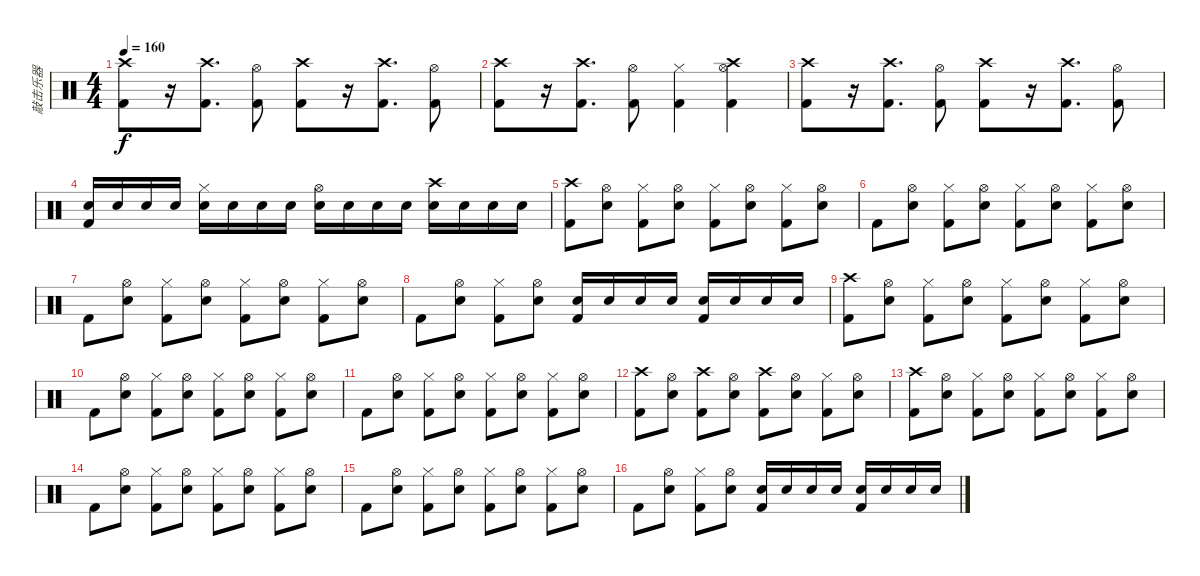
\track ("敲击乐器" "敲击乐器") {instrument percussion}
\staff {score}
\articulation defaults
\ts (4 4)
\tempo 160
\clef neutral
\ks c
("Crash high (hit)" "Kick (hit) 2").8{dy f} r.16 ("Crash high (hit)" "Kick (hit) 2").8{d} ("Hi-Hat (open)" "Kick (hit) 2").8 ("Crash high (hit)" "Kick (hit) 2").8 r.16 ("Crash high (hit)" "Kick (hit) 2").8{d} ("Hi-Hat (open)" "Kick (hit) 2").8 |
("Crash high (hit)" "Kick (hit) 2").8 r.16 ("Crash high (hit)" "Kick (hit) 2").8{d} ("Hi-Hat (open)" "Kick (hit) 2").8 ("Hi-Hat (closed)" "Kick (hit) 2").4 ("Crash high (hit)" "Hi-Hat (open)" "Kick (hit) 2").4 |
("Crash high (hit)" "Kick (hit) 2").8 r.16 ("Crash high (hit)" "Kick (hit) 2").8{d} ("Hi-Hat (open)" "Kick (hit) 2").8 ("Crash high (hit)" "Kick (hit) 2").8 r.16 ("Crash high (hit)" "Kick (hit) 2").8{d} ("Hi-Hat (open)" "Kick (hit) 2").8 |
("Electric Snare (hit)" "Kick (hit) 2").16 "Electric Snare (hit)".16 "Electric Snare (hit)".16 "Electric Snare (hit)".16 ("Hi-Hat (closed)" "Electric Snare (hit)").16 "Electric Snare (hit)".16 "Electric Snare (hit)".16 "Electric Snare (hit)".16 ("Hi-Hat (open)" "Electric Snare (hit)").16 "Electric Snare (hit)".16 "Electric Snare (hit)".16 "Electric Snare (hit)".16 ("Crash high (hit)" "Electric Snare (hit)").16 "Electric Snare (hit)".16 "Electric Snare (hit)".16 "Electric Snare (hit)".16 |
("Crash high (hit)" "Kick (hit) 2").8 ("Hi-Hat (open)" "Electric Snare (hit)").8 ("Hi-Hat (closed)" "Kick (hit) 2").8 ("Hi-Hat (open)" "Electric Snare (hit)").8 ("Hi-Hat (closed)" "Kick (hit) 2").8 ("Hi-Hat (open)" "Electric Snare (hit)").8 ("Hi-Hat (closed)" "Kick (hit) 2").8 ("Hi-Hat (open)" "Electric Snare (hit)").8 |
"Kick (hit) 2".8 ("Hi-Hat (open)" "Electric Snare (hit)").8 ("Hi-Hat (closed)" "Kick (hit) 2").8 ("Hi-Hat (open)" "Electric Snare (hit)").8 ("Hi-Hat (closed)" "Kick (hit) 2").8 ("Hi-Hat (open)" "Electric Snare (hit)").8 ("Hi-Hat (closed)" "Kick (hit) 2").8 ("Hi-Hat (open)" "Electric Snare (hit)").8 |
"Kick (hit) 2".8 ("Hi-Hat (open)" "Electric Snare (hit)").8 ("Hi-Hat (closed)" "Kick (hit) 2").8 ("Hi-Hat (open)" "Electric Snare (hit)").8 ("Hi-Hat (closed)" "Kick (hit) 2").8 ("Hi-Hat (open)" "Electric Snare (hit)").8 ("Hi-Hat (closed)" "Kick (hit) 2").8 ("Hi-Hat (open)" "Electric Snare (hit)").8 |
"Kick (hit) 2".8 ("Hi-Hat (open)" "Electric Snare (hit)").8 ("Hi-Hat (closed)" "Kick (hit) 2").8 ("Hi-Hat (open)" "Electric Snare (hit)").8 ("Electric Snare (hit)" "Kick (hit) 2").16 "Electric Snare (hit)".16 "Electric Snare (hit)".16 "Electric Snare (hit)".16 ("Electric Snare (hit)" "Kick (hit) 2").16 "Electric Snare (hit)".16 "Electric Snare (hit)".16 "Electric Snare (hit)".16 |
("Crash high (hit)" "Kick (hit) 2").8 ("Hi-Hat (open)" "Electric Snare (hit)").8 ("Hi-Hat (closed)" "Kick (hit) 2").8 ("Hi-Hat (open)" "Electric Snare (hit)").8 ("Hi-Hat (closed)" "Kick (hit) 2").8 ("Hi-Hat (open)" "Electric Snare (hit)").8 ("Hi-Hat (closed)" "Kick (hit) 2").8 ("Hi-Hat (open)" "Electric Snare (hit)").8 |
"Kick (hit) 2".8 ("Hi-Hat (open)" "Electric Snare (hit)").8 ("Hi-Hat (closed)" "Kick (hit) 2").8 ("Hi-Hat (open)" "Electric Snare (hit)").8 ("Hi-Hat (closed)" "Kick (hit) 2").8 ("Hi-Hat (open)" "Electric Snare (hit)").8 ("Hi-Hat (closed)" "Kick (hit) 2").8 ("Hi-Hat (open)" "Electric Snare (hit)").8 |
"Kick (hit) 2".8 ("Hi-Hat (open)" "Electric Snare (hit)").8 ("Hi-Hat (closed)" "Kick (hit) 2").8 ("Hi-Hat (open)" "Electric Snare (hit)").8 ("Hi-Hat (closed)" "Kick (hit) 2").8 ("Hi-Hat (open)" "Electric Snare (hit)").8 ("Hi-Hat (closed)" "Kick (hit) 2").8 ("Hi-Hat (open)" "Electric Snare (hit)").8 |
("Crash high (hit)" "Kick (hit) 2").8 ("Hi-Hat (open)" "Electric Snare (hit)").8 ("Crash high (hit)" "Kick (hit) 2").8 ("Hi-Hat (open)" "Electric Snare (hit)").8 ("Crash high (hit)" "Kick (hit) 2").8 ("Hi-Hat (open)" "Electric Snare (hit)").8 ("Hi-Hat (closed)" "Kick (hit) 2").8 ("Hi-Hat (open)" "Electric Snare (hit)").8 |
("Crash high (hit)" "Kick (hit) 2").8 ("Hi-Hat (open)" "Electric Snare (hit)").8 ("Hi-Hat (closed)" "Kick (hit) 2").8 ("Hi-Hat (open)" "Electric Snare (hit)").8 ("Hi-Hat (closed)" "Kick (hit) 2").8 ("Hi-Hat (open)" "Electric Snare (hit)").8 ("Hi-Hat (closed)" "Kick (hit) 2").8 ("Hi-Hat (open)" "Electric Snare (hit)").8 |
"Kick (hit) 2".8 ("Hi-Hat (open)" "Electric Snare (hit)").8 ("Hi-Hat (closed)" "Kick (hit) 2").8 ("Hi-Hat (open)" "Electric Snare (hit)").8 ("Hi-Hat (closed)" "Kick (hit) 2").8 ("Hi-Hat (open)" "Electric Snare (hit)").8 ("Hi-Hat (closed)" "Kick (hit) 2").8 ("Hi-Hat (open)" "Electric Snare (hit)").8 |
"Kick (hit) 2".8 ("Hi-Hat (open)" "Electric Snare (hit)").8 ("Hi-Hat (closed)" "Kick (hit) 2").8 ("Hi-Hat (open)" "Electric Snare (hit)").8 ("Hi-Hat (closed)" "Kick (hit) 2").8 ("Hi-Hat (open)" "Electric Snare (hit)").8 ("Hi-Hat (closed)" "Kick (hit) 2").8 ("Hi-Hat (open)" "Electric Snare (hit)").8 |
"Kick (hit) 2".8 ("Hi-Hat (open)" "Electric Snare (hit)").8 ("Hi-Hat (closed)" "Kick (hit) 2").8 ("Hi-Hat (open)" "Electric Snare (hit)").8 ("Electric Snare (hit)" "Kick (hit) 2").16 "Electric Snare (hit)".16 "Electric Snare (hit)".16 "Electric Snare (hit)".16 ("Electric Snare (hit)" "Kick (hit) 2").16 "Electric Snare (hit)".16 "Electric Snare (hit)".16 "Electric Snare (hit)".16
